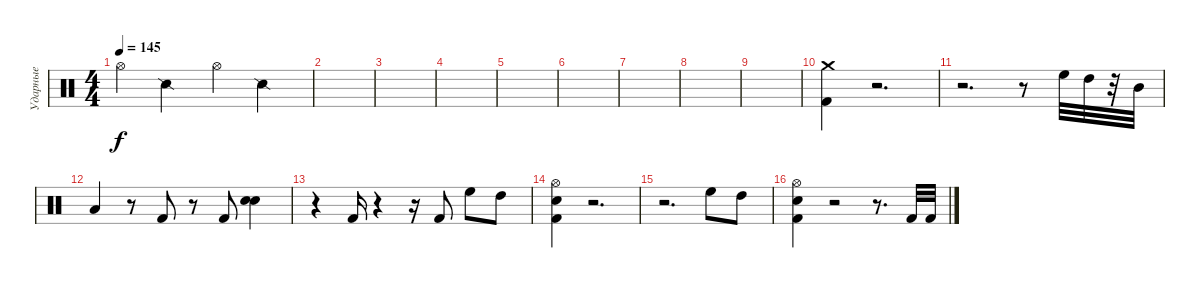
\track ("Ударные" "Ударные") {instrument percussion}
\staff {score}
\articulation defaults
\ts (4 4)
\tempo 145
\clef neutral
\ks c "Hi-Hat (open)".4{dy f} "Snare (side stick) 2".4 "Hi-Hat (open)".4 "Snare (side stick) 2".4
|
|
|
|
|
|
|
|
|
("Crash medium (hit)" "Kick (hit) 2").4 r.2{d} |
r.2{d} r.8 "High Floor Tom (hit)".32 "High Tom (hit)".32 r.32 "Mid Tom (hit)".32 |
"Low Tom (hit)".4 r.8 "Kick (hit) 2".8 r.8 "Kick (hit) 2".8 ("Snare (hit) 2" "Snare (hit) 2").4 |
r.4 "Kick (hit) 2".16 r.4 r.16 "Kick (hit) 2".8 "High Floor Tom (hit)".8 "High Tom (hit)".8 |
("Hi-Hat (open)" "Snare (hit) 2" "Kick (hit) 2").4 r.2{d} |
r.2{d} "High Floor Tom (hit)".8 "High Tom (hit)".8 |
("Kick (hit) 2" "Snare (hit) 2" "Hi-Hat (open)").4 r.2 r.8{d} "Kick (hit) 2".32 "Kick (hit) 2".32
